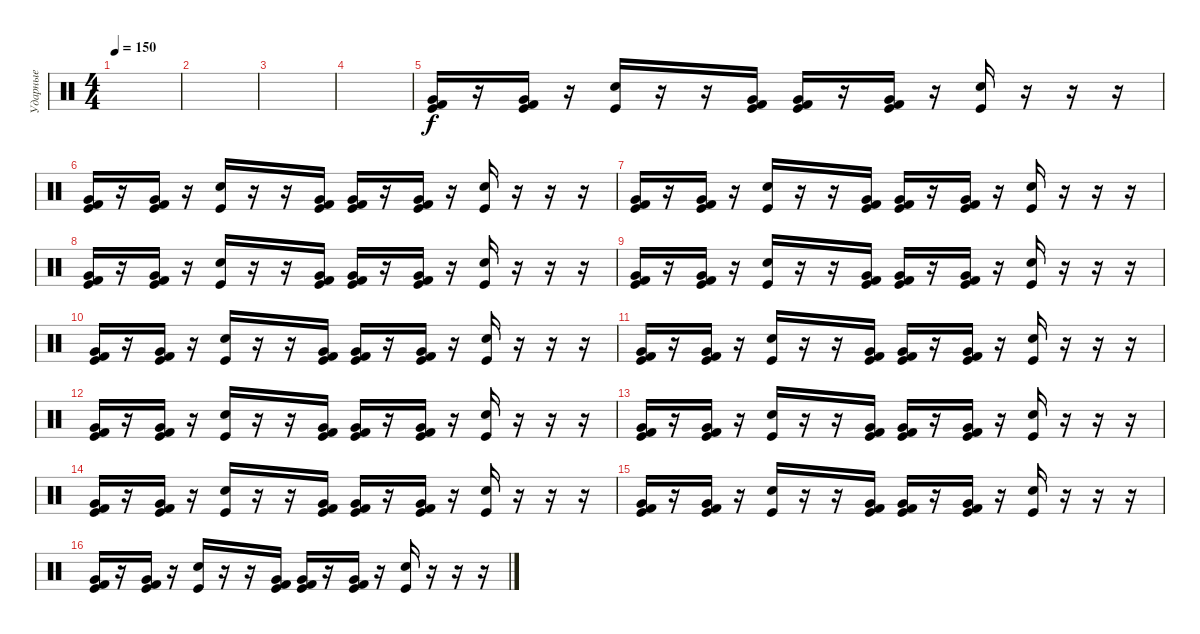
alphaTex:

\track ("Ударные" "Ударные") {instrument percussion}
\staff {score}
\articulation defaults
\ts (4 4)
\tempo 150
\clef neutral
\ks c
|
|
|
|
("Very Low Tom (hit)" "Kick (hit) 2" "Kick (hit)").16 r.16 ("Very Low Tom (hit)" "Kick (hit) 2" "Kick (hit)").16 r.16 ("Electric Snare (hit)" "Kick (hit)").16 r.16 r.16 ("Very Low Tom (hit)" "Kick (hit) 2" "Kick (hit)").16 ("Very Low Tom (hit)" "Kick (hit) 2" "Kick (hit)").16 r.16 ("Very Low Tom (hit)" "Kick (hit) 2" "Kick (hit)").16 r.16 ("Electric Snare (hit)" "Kick (hit)").16 r.16 r.16 r.16 |
("Very Low Tom (hit)" "Kick (hit) 2" "Kick (hit)").16 r.16 ("Very Low Tom (hit)" "Kick (hit) 2" "Kick (hit)").16 r.16 ("Electric Snare (hit)" "Kick (hit)").16 r.16 r.16 ("Very Low Tom (hit)" "Kick (hit) 2" "Kick (hit)").16 ("Very Low Tom (hit)" "Kick (hit) 2" "Kick (hit)").16 r.16 ("Very Low Tom (hit)" "Kick (hit) 2" "Kick (hit)").16 r.16 ("Electric Snare (hit)" "Kick (hit)").16 r.16 r.16 r.16 |
("Very Low Tom (hit)" "Kick (hit) 2" "Kick (hit)").16 r.16 ("Very Low Tom (hit)" "Kick (hit) 2" "Kick (hit)").16 r.16 ("Electric Snare (hit)" "Kick (hit)").16 r.16 r.16 ("Very Low Tom (hit)" "Kick (hit) 2" "Kick (hit)").16 ("Very Low Tom (hit)" "Kick (hit) 2" "Kick (hit)").16 r.16 ("Very Low Tom (hit)" "Kick (hit) 2" "Kick (hit)").16 r.16 ("Electric Snare (hit)" "Kick (hit)").16 r.16 r.16 r.16 |
("Very Low Tom (hit)" "Kick (hit) 2" "Kick (hit)").16 r.16 ("Very Low Tom (hit)" "Kick (hit) 2" "Kick (hit)").16 r.16 ("Electric Snare (hit)" "Kick (hit)").16 r.16 r.16 ("Very Low Tom (hit)" "Kick (hit) 2" "Kick (hit)").16 ("Very Low Tom (hit)" "Kick (hit) 2" "Kick (hit)").16 r.16 ("Very Low Tom (hit)" "Kick (hit) 2" "Kick (hit)").16 r.16 ("Electric Snare (hit)" "Kick (hit)").16 r.16 r.16 r.16 |
("Very Low Tom (hit)" "Kick (hit) 2" "Kick (hit)").16 r.16 ("Very Low Tom (hit)" "Kick (hit) 2" "Kick (hit)").16 r.16 ("Electric Snare (hit)" "Kick (hit)").16 r.16 r.16 ("Very Low Tom (hit)" "Kick (hit) 2" "Kick (hit)").16 ("Very Low Tom (hit)" "Kick (hit) 2" "Kick (hit)").16 r.16 ("Very Low Tom (hit)" "Kick (hit) 2" "Kick (hit)").16 r.16 ("Electric Snare (hit)" "Kick (hit)").16 r.16 r.16 r.16 |
("Very Low Tom (hit)" "Kick (hit) 2" "Kick (hit)").16 r.16 ("Very Low Tom (hit)" "Kick (hit) 2" "Kick (hit)").16 r.16 ("Electric Snare (hit)" "Kick (hit)").16 r.16 r.16 ("Very Low Tom (hit)" "Kick (hit) 2" "Kick (hit)").16 ("Very Low Tom (hit)" "Kick (hit) 2" "Kick (hit)").16 r.16 ("Very Low Tom (hit)" "Kick (hit) 2" "Kick (hit)").16 r.16 ("Electric Snare (hit)" "Kick (hit)").16 r.16 r.16 r.16 |
("Very Low Tom (hit)" "Kick (hit) 2" "Kick (hit)").16 r.16 ("Very Low Tom (hit)" "Kick (hit) 2" "Kick (hit)").16 r.16 ("Electric Snare (hit)" "Kick (hit)").16 r.16 r.16 ("Very Low Tom (hit)" "Kick (hit) 2" "Kick (hit)").16 ("Very Low Tom (hit)" "Kick (hit) 2" "Kick (hit)").16 r.16 ("Very Low Tom (hit)" "Kick (hit) 2" "Kick (hit)").16 r.16 ("Electric Snare (hit)" "Kick (hit)").16 r.16 r.16 r.16 |
("Very Low Tom (hit)" "Kick (hit) 2" "Kick (hit)").16 r.16 ("Very Low Tom (hit)" "Kick (hit) 2" "Kick (hit)").16 r.16 ("Electric Snare (hit)" "Kick (hit)").16 r.16 r.16 ("Very Low Tom (hit)" "Kick (hit) 2" "Kick (hit)").16 ("Very Low Tom (hit)" "Kick (hit) 2" "Kick (hit)").16 r.16 ("Very Low Tom (hit)" "Kick (hit) 2" "Kick (hit)").16 r.16 ("Electric Snare (hit)" "Kick (hit)").16 r.16 r.16 r.16 |
("Very Low Tom (hit)" "Kick (hit) 2" "Kick (hit)").16 r.16 ("Very Low Tom (hit)" "Kick (hit) 2" "Kick (hit)").16 r.16 ("Electric Snare (hit)" "Kick (hit)").16 r.16 r.16 ("Very Low Tom (hit)" "Kick (hit) 2" "Kick (hit)").16 ("Very Low Tom (hit)" "Kick (hit) 2" "Kick (hit)").16 r.16 ("Very Low Tom (hit)" "Kick (hit) 2" "Kick (hit)").16 r.16 ("Electric Snare (hit)" "Kick (hit)").16 r.16 r.16 r.16 |
("Very Low Tom (hit)" "Kick (hit) 2" "Kick (hit)").16 r.16 ("Very Low Tom (hit)" "Kick (hit) 2" "Kick (hit)").16 r.16 ("Electric Snare (hit)" "Kick (hit)").16 r.16 r.16 ("Very Low Tom (hit)" "Kick (hit) 2" "Kick (hit)").16 ("Very Low Tom (hit)" "Kick (hit) 2" "Kick (hit)").16 r.16 ("Very Low Tom (hit)" "Kick (hit) 2" "Kick (hit)").16 r.16 ("Electric Snare (hit)" "Kick (hit)").16 r.16 r.16 r.16 |
("Very Low Tom (hit)" "Kick (hit) 2" "Kick (hit)").16 r.16 ("Very Low Tom (hit)" "Kick (hit) 2" "Kick (hit)").16 r.16 ("Electric Snare (hit)" "Kick (hit)").16 r.16 r.16 ("Very Low Tom (hit)" "Kick (hit) 2" "Kick (hit)").16 ("Very Low Tom (hit)" "Kick (hit) 2" "Kick (hit)").16 r.16 ("Very Low Tom (hit)" "Kick (hit) 2" "Kick (hit)").16 r.16 ("Electric Snare (hit)" "Kick (hit)").16 r.16 r.16 r.16 |
("Very Low Tom (hit)" "Kick (hit) 2" "Kick (hit)").16 r.16 ("Very Low Tom (hit)" "Kick (hit) 2" "Kick (hit)").16 r.16 ("Electric Snare (hit)" "Kick (hit)").16 r.16 r.16 ("Very Low Tom (hit)" "Kick (hit) 2" "Kick (hit)").16 ("Very Low Tom (hit)" "Kick (hit) 2" "Kick (hit)").16 r.16 ("Very Low Tom (hit)" "Kick (hit) 2" "Kick (hit)").16 r.16 ("Electric Snare (hit)" "Kick (hit)").16 r.16 r.16 r.16
